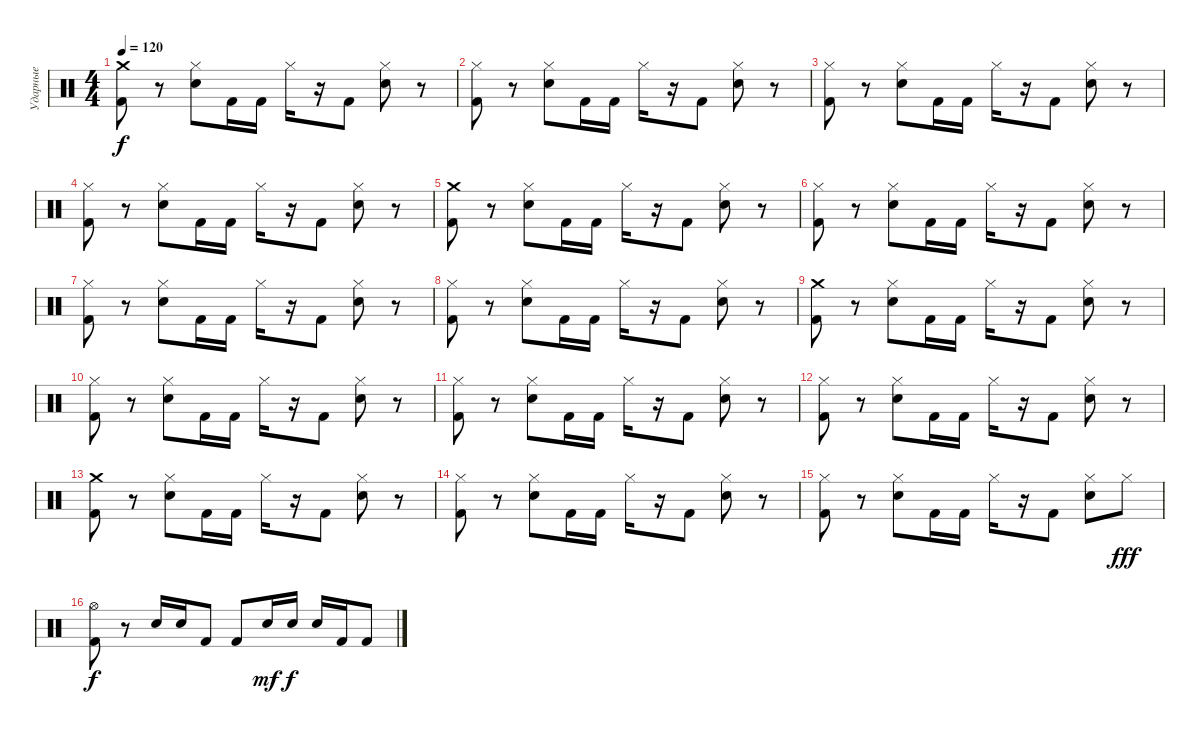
\track ("Ударные" "Ударные") {instrument percussion}
\staff {score}
\articulation defaults
\ts (4 4)
\tempo 120
\clef neutral
\ks c
("Crash medium (hit)" "Kick (hit) 2").8{dy f} r.8 ("Hi-Hat (closed)" "Snare (hit) 2").8 "Kick (hit) 2".16 "Kick (hit) 2".16 "Hi-Hat (closed)".16 r.16 "Kick (hit) 2".8 ("Hi-Hat (closed)" "Snare (hit) 2").8 r.8 |
("Hi-Hat (closed)" "Kick (hit) 2").8 r.8 ("Hi-Hat (closed)" "Snare (hit) 2").8 "Kick (hit) 2".16 "Kick (hit) 2".16 "Hi-Hat (closed)".16 r.16 "Kick (hit) 2".8 ("Hi-Hat (closed)" "Snare (hit) 2").8 r.8 |
("Hi-Hat (closed)" "Kick (hit) 2").8 r.8 ("Hi-Hat (closed)" "Snare (hit) 2").8 "Kick (hit) 2".16 "Kick (hit) 2".16 "Hi-Hat (closed)".16 r.16 "Kick (hit) 2".8 ("Hi-Hat (closed)" "Snare (hit) 2").8 r.8 |
("Hi-Hat (closed)" "Kick (hit) 2").8 r.8 ("Hi-Hat (closed)" "Snare (hit) 2").8 "Kick (hit) 2".16 "Kick (hit) 2".16 "Hi-Hat (closed)".16 r.16 "Kick (hit) 2".8 ("Hi-Hat (closed)" "Snare (hit) 2").8 r.8 |
("Crash medium (hit)" "Kick (hit) 2").8 r.8 ("Hi-Hat (closed)" "Snare (hit) 2").8 "Kick (hit) 2".16 "Kick (hit) 2".16 "Hi-Hat (closed)".16 r.16 "Kick (hit) 2".8 ("Hi-Hat (closed)" "Snare (hit) 2").8 r.8 |
("Hi-Hat (closed)" "Kick (hit) 2").8 r.8 ("Hi-Hat (closed)" "Snare (hit) 2").8 "Kick (hit) 2".16 "Kick (hit) 2".16 "Hi-Hat (closed)".16 r.16 "Kick (hit) 2".8 ("Hi-Hat (closed)" "Snare (hit) 2").8 r.8 |
("Hi-Hat (closed)" "Kick (hit) 2").8 r.8 ("Hi-Hat (closed)" "Snare (hit) 2").8 "Kick (hit) 2".16 "Kick (hit) 2".16 "Hi-Hat (closed)".16 r.16 "Kick (hit) 2".8 ("Hi-Hat (closed)" "Snare (hit) 2").8 r.8 |
("Hi-Hat (closed)" "Kick (hit) 2").8 r.8 ("Hi-Hat (closed)" "Snare (hit) 2").8 "Kick (hit) 2".16 "Kick (hit) 2".16 "Hi-Hat (closed)".16 r.16 "Kick (hit) 2".8 ("Hi-Hat (closed)" "Snare (hit) 2").8 r.8 |
("Crash medium (hit)" "Kick (hit) 2").8 r.8 ("Hi-Hat (closed)" "Snare (hit) 2").8 "Kick (hit) 2".16 "Kick (hit) 2".16 "Hi-Hat (closed)".16 r.16 "Kick (hit) 2".8 ("Hi-Hat (closed)" "Snare (hit) 2").8 r.8 |
("Hi-Hat (closed)" "Kick (hit) 2").8 r.8 ("Hi-Hat (closed)" "Snare (hit) 2").8 "Kick (hit) 2".16 "Kick (hit) 2".16 "Hi-Hat (closed)".16 r.16 "Kick (hit) 2".8 ("Hi-Hat (closed)" "Snare (hit) 2").8 r.8 |
("Hi-Hat (closed)" "Kick (hit) 2").8 r.8 ("Hi-Hat (closed)" "Snare (hit) 2").8 "Kick (hit) 2".16 "Kick (hit) 2".16 "Hi-Hat (closed)".16 r.16 "Kick (hit) 2".8 ("Hi-Hat (closed)" "Snare (hit) 2").8 r.8 |
("Hi-Hat (closed)" "Kick (hit) 2").8 r.8 ("Hi-Hat (closed)" "Snare (hit) 2").8 "Kick (hit) 2".16 "Kick (hit) 2".16 "Hi-Hat (closed)".16 r.16 "Kick (hit) 2".8 ("Hi-Hat (closed)" "Snare (hit) 2").8 r.8 |
("Crash medium (hit)" "Kick (hit) 2").8 r.8 ("Hi-Hat (closed)" "Snare (hit) 2").8 "Kick (hit) 2".16 "Kick (hit) 2".16 "Hi-Hat (closed)".16 r.16 "Kick (hit) 2".8 ("Hi-Hat (closed)" "Snare (hit) 2").8 r.8 |
("Hi-Hat (closed)" "Kick (hit) 2").8 r.8 ("Hi-Hat (closed)" "Snare (hit) 2").8 "Kick (hit) 2".16 "Kick (hit) 2".16 "Hi-Hat (closed)".16 r.16 "Kick (hit) 2".8 ("Hi-Hat (closed)" "Snare (hit) 2").8 r.8 |
("Hi-Hat (closed)" "Kick (hit) 2").8 r.8 ("Hi-Hat (closed)" "Snare (hit) 2").8 "Kick (hit) 2".16 "Kick (hit) 2".16 "Hi-Hat (closed)".16 r.16 "Kick (hit) 2".8 ("Hi-Hat (closed)" "Snare (hit) 2").8 "Hi-Hat (closed)".8{dy fff} |
("Hi-Hat (open)" "Kick (hit) 2").8{dy f} r.8 "Snare (hit) 2".16 "Snare (hit) 2".16 "Kick (hit) 2".8 "Kick (hit) 2".8 "Snare (hit) 2".16{dy mf} "Snare (hit) 2".16{dy f} "Snare (hit) 2".16 "Kick (hit) 2".16 "Kick (hit) 2".8
